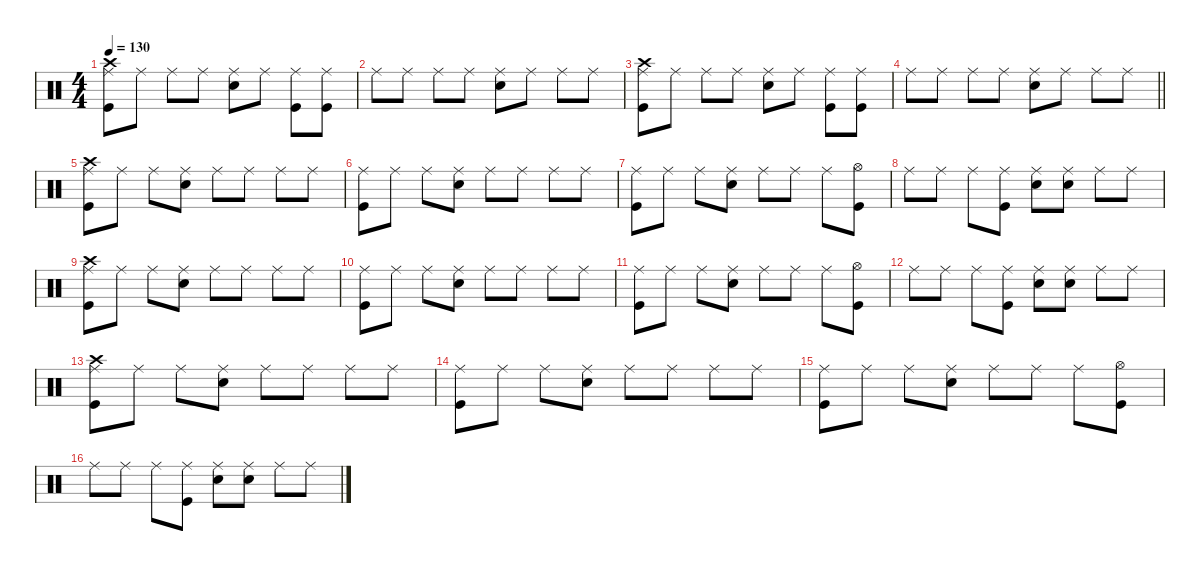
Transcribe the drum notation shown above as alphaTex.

\defaultSystemsLayout 4
\hideDynamics
\bracketExtendMode nobrackets
\singleTrackTrackNamePolicy hidden
\multiTrackTrackNamePolicy hidden
\firstSystemTrackNameMode fullname
\firstSystemTrackNameOrientation horizontal
\otherSystemsTrackNameOrientation horizontal
\track ("Percussion" "drm.") {defaultSystemsLayout 4 instrument percussion}
\staff {score}
\articulation defaults
\ts (4 4)
\tempo 130
\clef neutral
\ks c
("Crash high (hit)" "Ride (middle)" "Kick (hit)").8{dy f beam Down} "Ride (middle)".8{beam Down} "Ride (middle)".8{beam Down} "Ride (middle)".8{beam Down} ("Ride (middle)" "Snare (hit) 2").8{beam Down} "Ride (middle)".8{beam Down} ("Ride (middle)" "Kick (hit)").8{beam Down} ("Ride (middle)" "Kick (hit)").8{beam Down} |
"Ride (middle)".8{beam Down} "Ride (middle)".8{beam Down} "Ride (middle)".8{beam Down} "Ride (middle)".8{beam Down} ("Ride (middle)" "Snare (hit) 2").8{beam Down} "Ride (middle)".8{beam Down} "Ride (middle)".8{beam Down} "Ride (middle)".8{beam Down} |
("Crash high (hit)" "Ride (middle)" "Kick (hit)").8{beam Down} "Ride (middle)".8{beam Down} "Ride (middle)".8{beam Down} "Ride (middle)".8{beam Down} ("Ride (middle)" "Snare (hit) 2").8{beam Down} "Ride (middle)".8{beam Down} ("Ride (middle)" "Kick (hit)").8{beam Down} ("Ride (middle)" "Kick (hit)").8{beam Down} |
\barLineRight lightlight "Ride (middle)".8{beam Down} "Ride (middle)".8{beam Down} "Ride (middle)".8{beam Down} "Ride (middle)".8{beam Down}
("Ride (middle)" "Snare (hit) 2").8{beam Down} "Ride (middle)".8{beam Down} "Ride (middle)".8{beam Down} "Ride (middle)".8{beam Down} |
("Crash high (hit)" "Ride (middle)" "Kick (hit)").8{beam Down} "Ride (middle)".8{beam Down} "Ride (middle)".8{beam Down} ("Ride (middle)" "Snare (hit) 2").8{beam Down} "Ride (middle)".8{beam Down} "Ride (middle)".8{beam Down} "Ride (middle)".8{beam Down} "Ride (middle)".8{beam Down} |
("Ride (middle)" "Kick (hit)").8{beam Down} "Ride (middle)".8{beam Down} "Ride (middle)".8{beam Down} ("Ride (middle)" "Snare (hit) 2").8{beam Down} "Ride (middle)".8{beam Down} "Ride (middle)".8{beam Down} "Ride (middle)".8{beam Down} "Ride (middle)".8{beam Down} |
("Ride (middle)" "Kick (hit)").8{beam Down} "Ride (middle)".8{beam Down} "Ride (middle)".8{beam Down} ("Ride (middle)" "Snare (hit) 2").8{beam Down} "Ride (middle)".8{beam Down} "Ride (middle)".8{beam Down} "Ride (middle)".8{beam Down} ("Kick (hit)" "Hi-Hat (open)").8{beam Down} |
"Ride (middle)".8{dy mf beam Down} "Ride (middle)".8{dy f beam Down} "Ride (middle)".8{beam Down} ("Ride (middle)" "Kick (hit)").8{beam Down} ("Ride (middle)" "Snare (hit) 2").8{beam Down} ("Ride (middle)" "Snare (hit) 2").8{beam Down} "Ride (middle)".8{beam Down} "Ride (middle)".8{beam Down} |
("Crash high (hit)" "Ride (middle)" "Kick (hit)").8{beam Down} "Ride (middle)".8{beam Down} "Ride (middle)".8{beam Down} ("Ride (middle)" "Snare (hit) 2").8{beam Down} "Ride (middle)".8{beam Down} "Ride (middle)".8{beam Down} "Ride (middle)".8{beam Down} "Ride (middle)".8{beam Down} |
("Ride (middle)" "Kick (hit)").8{beam Down} "Ride (middle)".8{beam Down} "Ride (middle)".8{beam Down} ("Ride (middle)" "Snare (hit) 2").8{beam Down} "Ride (middle)".8{beam Down} "Ride (middle)".8{beam Down} "Ride (middle)".8{beam Down} "Ride (middle)".8{beam Down} |
("Ride (middle)" "Kick (hit)").8{beam Down} "Ride (middle)".8{beam Down} "Ride (middle)".8{beam Down} ("Ride (middle)" "Snare (hit) 2").8{beam Down} "Ride (middle)".8{beam Down} "Ride (middle)".8{beam Down} "Ride (middle)".8{beam Down} ("Kick (hit)" "Hi-Hat (open)").8{beam Down} |
"Ride (middle)".8{dy mf beam Down} "Ride (middle)".8{dy f beam Down} "Ride (middle)".8{beam Down} ("Ride (middle)" "Kick (hit)").8{beam Down} ("Ride (middle)" "Snare (hit) 2").8{beam Down} ("Ride (middle)" "Snare (hit) 2").8{beam Down} "Ride (middle)".8{beam Down} "Ride (middle)".8{beam Down} |
("Crash high (hit)" "Ride (middle)" "Kick (hit)").8{beam Down} "Ride (middle)".8{beam Down} "Ride (middle)".8{beam Down} ("Ride (middle)" "Snare (hit) 2").8{beam Down} "Ride (middle)".8{beam Down} "Ride (middle)".8{beam Down} "Ride (middle)".8{beam Down} "Ride (middle)".8{beam Down} |
("Ride (middle)" "Kick (hit)").8{beam Down} "Ride (middle)".8{beam Down} "Ride (middle)".8{beam Down} ("Ride (middle)" "Snare (hit) 2").8{beam Down} "Ride (middle)".8{beam Down} "Ride (middle)".8{beam Down} "Ride (middle)".8{beam Down} "Ride (middle)".8{beam Down} |
("Ride (middle)" "Kick (hit)").8{beam Down} "Ride (middle)".8{beam Down} "Ride (middle)".8{beam Down} ("Ride (middle)" "Snare (hit) 2").8{beam Down} "Ride (middle)".8{beam Down} "Ride (middle)".8{beam Down} "Ride (middle)".8{beam Down} ("Kick (hit)" "Hi-Hat (open)").8{beam Down} |
"Ride (middle)".8{dy mf beam Down} "Ride (middle)".8{dy f beam Down} "Ride (middle)".8{beam Down} ("Ride (middle)" "Kick (hit)").8{beam Down} ("Ride (middle)" "Snare (hit) 2").8{beam Down} ("Ride (middle)" "Snare (hit) 2").8{beam Down} "Ride (middle)".8{beam Down} "Ride (middle)".8{beam Down}
